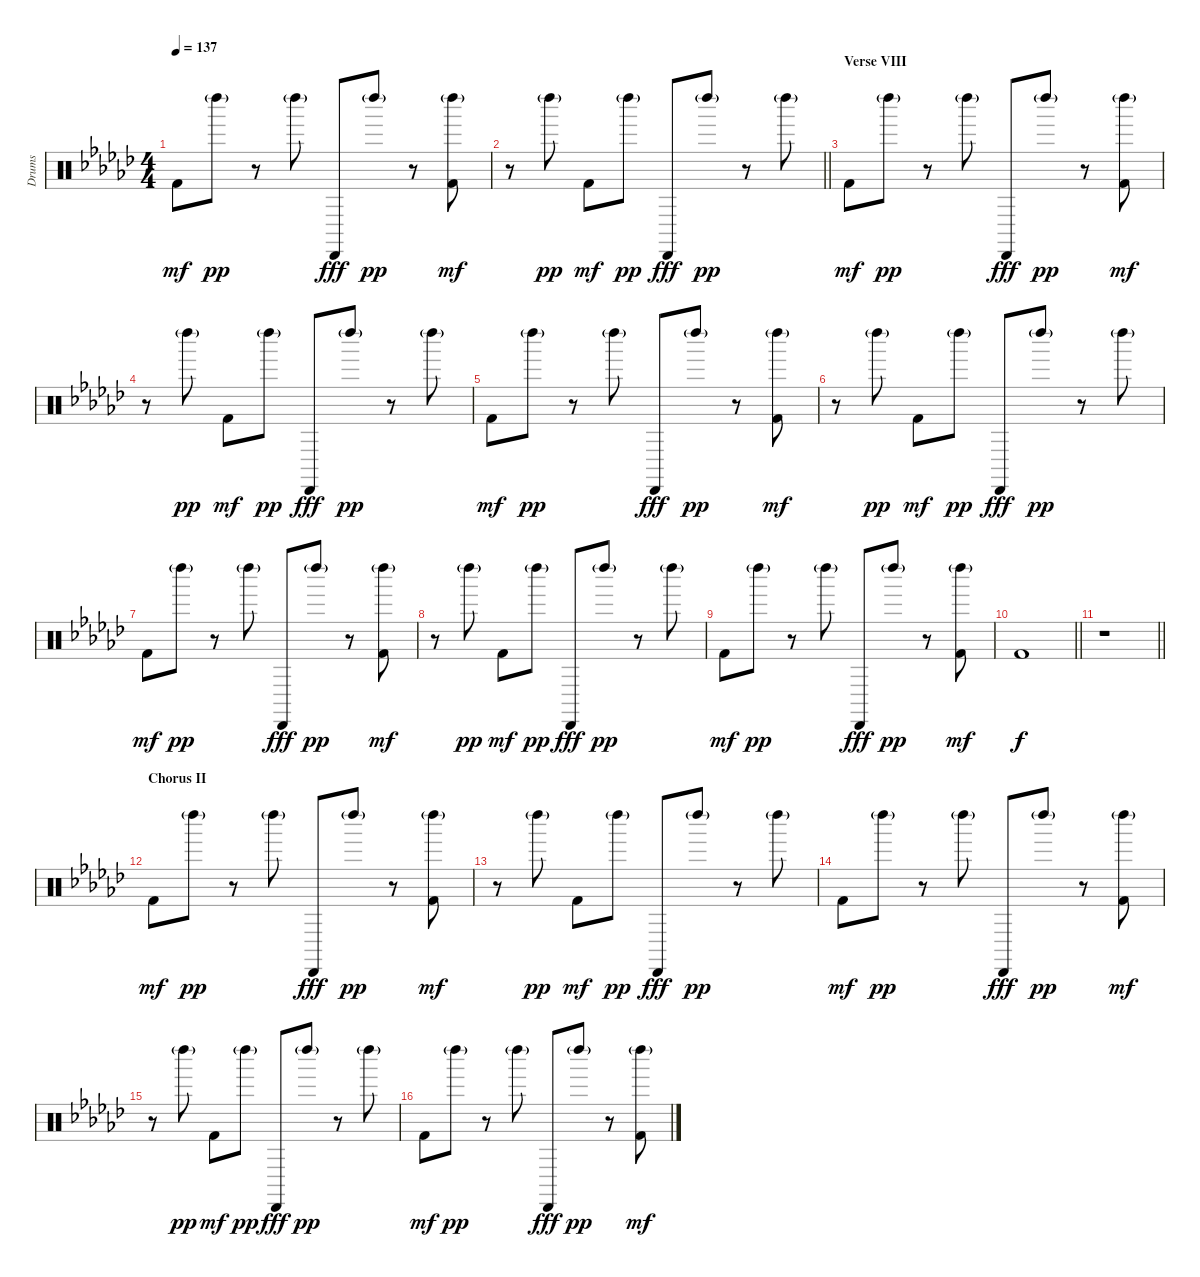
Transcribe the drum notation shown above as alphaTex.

\track ("Drums" "Drums") {instrument percussion}
\staff
\articulation defaults
\ts (4 4)
\tempo 137
\clef neutral
\ks ebminor "Kick (hit) 2".8{dy mf} "Left Maraca (hit)"{g}.8{dy pp}
r.8 "Left Maraca (hit)"{g}.8 "Cabasa (hit)".8{dy fff} "Left Maraca (hit)"{g}.8{dy pp} r.8 ("Left Maraca (hit)"{g} "Kick (hit) 2").8{dy mf} |
\barLineRight lightlight
r.8 "Left Maraca (hit)"{g}.8{dy pp} "Kick (hit) 2".8{dy mf} "Left Maraca (hit)"{g}.8{dy pp} "Cabasa (hit)".8{dy fff} "Left Maraca (hit)"{g}.8{dy pp} r.8 "Left Maraca (hit)"{g}.8 |
\section ("" "Verse VIII")
"Kick (hit) 2".8{dy mf} "Left Maraca (hit)"{g}.8{dy pp} r.8 "Left Maraca (hit)"{g}.8 "Cabasa (hit)".8{dy fff} "Left Maraca (hit)"{g}.8{dy pp} r.8 ("Left Maraca (hit)"{g} "Kick (hit) 2").8{dy mf} |
r.8 "Left Maraca (hit)"{g}.8{dy pp} "Kick (hit) 2".8{dy mf} "Left Maraca (hit)"{g}.8{dy pp} "Cabasa (hit)".8{dy fff} "Left Maraca (hit)"{g}.8{dy pp} r.8 "Left Maraca (hit)"{g}.8 |
"Kick (hit) 2".8{dy mf} "Left Maraca (hit)"{g}.8{dy pp} r.8 "Left Maraca (hit)"{g}.8 "Cabasa (hit)".8{dy fff} "Left Maraca (hit)"{g}.8{dy pp} r.8 ("Left Maraca (hit)"{g} "Kick (hit) 2").8{dy mf} |
r.8 "Left Maraca (hit)"{g}.8{dy pp} "Kick (hit) 2".8{dy mf} "Left Maraca (hit)"{g}.8{dy pp} "Cabasa (hit)".8{dy fff} "Left Maraca (hit)"{g}.8{dy pp} r.8 "Left Maraca (hit)"{g}.8 |
"Kick (hit) 2".8{dy mf} "Left Maraca (hit)"{g}.8{dy pp} r.8 "Left Maraca (hit)"{g}.8 "Cabasa (hit)".8{dy fff} "Left Maraca (hit)"{g}.8{dy pp} r.8 ("Left Maraca (hit)"{g} "Kick (hit) 2").8{dy mf} |
r.8 "Left Maraca (hit)"{g}.8{dy pp} "Kick (hit) 2".8{dy mf} "Left Maraca (hit)"{g}.8{dy pp} "Cabasa (hit)".8{dy fff} "Left Maraca (hit)"{g}.8{dy pp} r.8 "Left Maraca (hit)"{g}.8 |
"Kick (hit) 2".8{dy mf} "Left Maraca (hit)"{g}.8{dy pp} r.8 "Left Maraca (hit)"{g}.8 "Cabasa (hit)".8{dy fff} "Left Maraca (hit)"{g}.8{dy pp} r.8 ("Left Maraca (hit)"{g} "Kick (hit) 2").8{dy mf} |
\barLineRight lightlight "Kick (hit) 2".1{dy f}
|
\barLineRight lightlight
r.1 |
\section ("" "Chorus II")
"Kick (hit) 2".8{dy mf} "Left Maraca (hit)"{g}.8{dy pp} r.8 "Left Maraca (hit)"{g}.8 "Cabasa (hit)".8{dy fff} "Left Maraca (hit)"{g}.8{dy pp} r.8 ("Left Maraca (hit)"{g} "Kick (hit) 2").8{dy mf} |
r.8 "Left Maraca (hit)"{g}.8{dy pp} "Kick (hit) 2".8{dy mf} "Left Maraca (hit)"{g}.8{dy pp} "Cabasa (hit)".8{dy fff} "Left Maraca (hit)"{g}.8{dy pp} r.8 "Left Maraca (hit)"{g}.8 |
"Kick (hit) 2".8{dy mf} "Left Maraca (hit)"{g}.8{dy pp} r.8 "Left Maraca (hit)"{g}.8 "Cabasa (hit)".8{dy fff} "Left Maraca (hit)"{g}.8{dy pp} r.8 ("Left Maraca (hit)"{g} "Kick (hit) 2").8{dy mf} |
r.8 "Left Maraca (hit)"{g}.8{dy pp} "Kick (hit) 2".8{dy mf} "Left Maraca (hit)"{g}.8{dy pp} "Cabasa (hit)".8{dy fff} "Left Maraca (hit)"{g}.8{dy pp} r.8 "Left Maraca (hit)"{g}.8 |
"Kick (hit) 2".8{dy mf} "Left Maraca (hit)"{g}.8{dy pp} r.8 "Left Maraca (hit)"{g}.8 "Cabasa (hit)".8{dy fff} "Left Maraca (hit)"{g}.8{dy pp} r.8 ("Left Maraca (hit)"{g} "Kick (hit) 2").8{dy mf}
